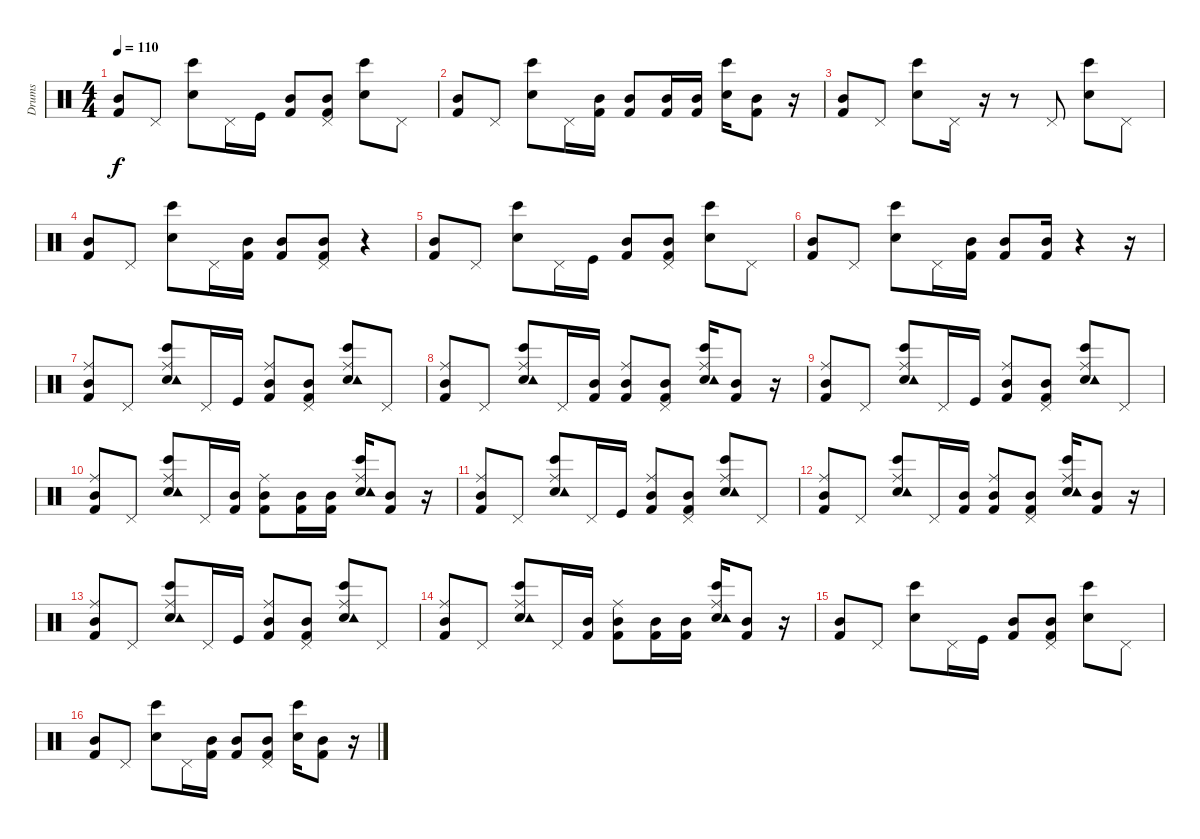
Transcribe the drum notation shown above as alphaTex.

\track ("Drums" "Drums") {instrument percussion}
\staff {score}
\articulation defaults
\ts (4 4)
\tempo 110
\clef neutral
\ks c
("Mid Tom (hit)" "Kick (hit) 2").8{dy f} "Pedal Hi-Hat (hit)".8 ("Electric Snare (hit)" "Bongo High (hit)").8 "Pedal Hi-Hat (hit)".16 "Kick (hit)".16 ("Mid Tom (hit)" "Kick (hit) 2").8 ("Pedal Hi-Hat (hit)" "Mid Tom (hit)" "Kick (hit) 2").8 ("Electric Snare (hit)" "Bongo High (hit)").8 "Pedal Hi-Hat (hit)".8 |
("Mid Tom (hit)" "Kick (hit) 2").8 "Pedal Hi-Hat (hit)".8 ("Electric Snare (hit)" "Bongo High (hit)").8 "Pedal Hi-Hat (hit)".16 ("Mid Tom (hit)" "Kick (hit) 2").16 ("Mid Tom (hit)" "Kick (hit) 2").8 ("Mid Tom (hit)" "Kick (hit) 2").16 ("Mid Tom (hit)" "Kick (hit) 2").16 ("Electric Snare (hit)" "Bongo High (hit)").16 ("Mid Tom (hit)" "Kick (hit) 2").8 r.16 |
("Mid Tom (hit)" "Kick (hit) 2").8 "Pedal Hi-Hat (hit)".8 ("Electric Snare (hit)" "Bongo High (hit)").8 "Pedal Hi-Hat (hit)".16 r.16 r.8 "Pedal Hi-Hat (hit)".8 ("Electric Snare (hit)" "Bongo High (hit)").8 "Pedal Hi-Hat (hit)".8 |
("Mid Tom (hit)" "Kick (hit) 2").8 "Pedal Hi-Hat (hit)".8 ("Electric Snare (hit)" "Bongo High (hit)").8 "Pedal Hi-Hat (hit)".16 ("Mid Tom (hit)" "Kick (hit) 2").16 ("Mid Tom (hit)" "Kick (hit) 2").8 ("Pedal Hi-Hat (hit)" "Mid Tom (hit)" "Kick (hit) 2").8 r.4 |
("Mid Tom (hit)" "Kick (hit) 2").8 "Pedal Hi-Hat (hit)".8 ("Electric Snare (hit)" "Bongo High (hit)").8 "Pedal Hi-Hat (hit)".16 "Kick (hit)".16 ("Mid Tom (hit)" "Kick (hit) 2").8 ("Pedal Hi-Hat (hit)" "Mid Tom (hit)" "Kick (hit) 2").8 ("Electric Snare (hit)" "Bongo High (hit)").8 "Pedal Hi-Hat (hit)".8 |
("Mid Tom (hit)" "Kick (hit) 2").8 "Pedal Hi-Hat (hit)".8 ("Electric Snare (hit)" "Bongo High (hit)").8 "Pedal Hi-Hat (hit)".16 ("Mid Tom (hit)" "Kick (hit) 2").16 ("Mid Tom (hit)" "Kick (hit) 2").8 ("Mid Tom (hit)" "Kick (hit) 2").16 r.4 r.16 |
("Ride (middle)" "Mid Tom (hit)" "Kick (hit) 2").8 "Pedal Hi-Hat (hit)".8 ("Ride (middle)" "Electric Snare (hit)" "Bongo High (hit)" "Tambourine (hit)").8 "Pedal Hi-Hat (hit)".16 "Kick (hit)".16 ("Ride (middle)" "Mid Tom (hit)" "Kick (hit) 2").8 ("Pedal Hi-Hat (hit)" "Mid Tom (hit)" "Kick (hit) 2").8 ("Ride (middle)" "Electric Snare (hit)" "Bongo High (hit)" "Tambourine (hit)").8 "Pedal Hi-Hat (hit)".8 |
("Ride (middle)" "Mid Tom (hit)" "Kick (hit) 2").8 "Pedal Hi-Hat (hit)".8 ("Ride (middle)" "Electric Snare (hit)" "Bongo High (hit)" "Tambourine (hit)").8 "Pedal Hi-Hat (hit)".16 ("Mid Tom (hit)" "Kick (hit) 2").16 ("Ride (middle)" "Mid Tom (hit)" "Kick (hit) 2").8 ("Pedal Hi-Hat (hit)" "Mid Tom (hit)" "Kick (hit) 2").8 ("Ride (middle)" "Electric Snare (hit)" "Bongo High (hit)" "Tambourine (hit)").16 ("Mid Tom (hit)" "Kick (hit) 2").8 r.16 |
("Ride (middle)" "Mid Tom (hit)" "Kick (hit) 2").8 "Pedal Hi-Hat (hit)".8 ("Ride (middle)" "Electric Snare (hit)" "Bongo High (hit)" "Tambourine (hit)").8 "Pedal Hi-Hat (hit)".16 "Kick (hit)".16 ("Ride (middle)" "Mid Tom (hit)" "Kick (hit) 2").8 ("Pedal Hi-Hat (hit)" "Mid Tom (hit)" "Kick (hit) 2").8 ("Ride (middle)" "Electric Snare (hit)" "Bongo High (hit)" "Tambourine (hit)").8 "Pedal Hi-Hat (hit)".8 |
("Ride (middle)" "Mid Tom (hit)" "Kick (hit) 2").8 "Pedal Hi-Hat (hit)".8 ("Ride (middle)" "Electric Snare (hit)" "Bongo High (hit)" "Tambourine (hit)").8 "Pedal Hi-Hat (hit)".16 ("Mid Tom (hit)" "Kick (hit) 2").16 ("Ride (middle)" "Mid Tom (hit)" "Kick (hit) 2").8 ("Mid Tom (hit)" "Kick (hit) 2").16 ("Mid Tom (hit)" "Kick (hit) 2").16 ("Ride (middle)" "Electric Snare (hit)" "Bongo High (hit)" "Tambourine (hit)").16 ("Mid Tom (hit)" "Kick (hit) 2").8 r.16 |
("Ride (middle)" "Mid Tom (hit)" "Kick (hit) 2").8 "Pedal Hi-Hat (hit)".8 ("Ride (middle)" "Electric Snare (hit)" "Bongo High (hit)" "Tambourine (hit)").8 "Pedal Hi-Hat (hit)".16 "Kick (hit)".16 ("Ride (middle)" "Mid Tom (hit)" "Kick (hit) 2").8 ("Pedal Hi-Hat (hit)" "Mid Tom (hit)" "Kick (hit) 2").8 ("Ride (middle)" "Electric Snare (hit)" "Bongo High (hit)" "Tambourine (hit)").8 "Pedal Hi-Hat (hit)".8 |
("Ride (middle)" "Mid Tom (hit)" "Kick (hit) 2").8 "Pedal Hi-Hat (hit)".8 ("Ride (middle)" "Electric Snare (hit)" "Bongo High (hit)" "Tambourine (hit)").8 "Pedal Hi-Hat (hit)".16 ("Mid Tom (hit)" "Kick (hit) 2").16 ("Ride (middle)" "Mid Tom (hit)" "Kick (hit) 2").8 ("Pedal Hi-Hat (hit)" "Mid Tom (hit)" "Kick (hit) 2").8 ("Ride (middle)" "Electric Snare (hit)" "Bongo High (hit)" "Tambourine (hit)").16 ("Mid Tom (hit)" "Kick (hit) 2").8 r.16 |
("Ride (middle)" "Mid Tom (hit)" "Kick (hit) 2").8 "Pedal Hi-Hat (hit)".8 ("Ride (middle)" "Electric Snare (hit)" "Bongo High (hit)" "Tambourine (hit)").8 "Pedal Hi-Hat (hit)".16 "Kick (hit)".16 ("Ride (middle)" "Mid Tom (hit)" "Kick (hit) 2").8 ("Pedal Hi-Hat (hit)" "Mid Tom (hit)" "Kick (hit) 2").8 ("Ride (middle)" "Electric Snare (hit)" "Bongo High (hit)" "Tambourine (hit)").8 "Pedal Hi-Hat (hit)".8 |
("Ride (middle)" "Mid Tom (hit)" "Kick (hit) 2").8 "Pedal Hi-Hat (hit)".8 ("Ride (middle)" "Electric Snare (hit)" "Bongo High (hit)" "Tambourine (hit)").8 "Pedal Hi-Hat (hit)".16 ("Mid Tom (hit)" "Kick (hit) 2").16 ("Ride (middle)" "Mid Tom (hit)" "Kick (hit) 2").8 ("Mid Tom (hit)" "Kick (hit) 2").16 ("Mid Tom (hit)" "Kick (hit) 2").16 ("Ride (middle)" "Electric Snare (hit)" "Bongo High (hit)" "Tambourine (hit)").16 ("Mid Tom (hit)" "Kick (hit) 2").8 r.16 |
("Mid Tom (hit)" "Kick (hit) 2").8 "Pedal Hi-Hat (hit)".8 ("Electric Snare (hit)" "Bongo High (hit)").8 "Pedal Hi-Hat (hit)".16 "Kick (hit)".16 ("Mid Tom (hit)" "Kick (hit) 2").8 ("Pedal Hi-Hat (hit)" "Mid Tom (hit)" "Kick (hit) 2").8 ("Electric Snare (hit)" "Bongo High (hit)").8 "Pedal Hi-Hat (hit)".8 |
("Mid Tom (hit)" "Kick (hit) 2").8 "Pedal Hi-Hat (hit)".8 ("Electric Snare (hit)" "Bongo High (hit)").8 "Pedal Hi-Hat (hit)".16 ("Mid Tom (hit)" "Kick (hit) 2").16 ("Mid Tom (hit)" "Kick (hit) 2").8 ("Pedal Hi-Hat (hit)" "Mid Tom (hit)" "Kick (hit) 2").8 ("Electric Snare (hit)" "Bongo High (hit)").16 ("Mid Tom (hit)" "Kick (hit) 2").8 r.16
